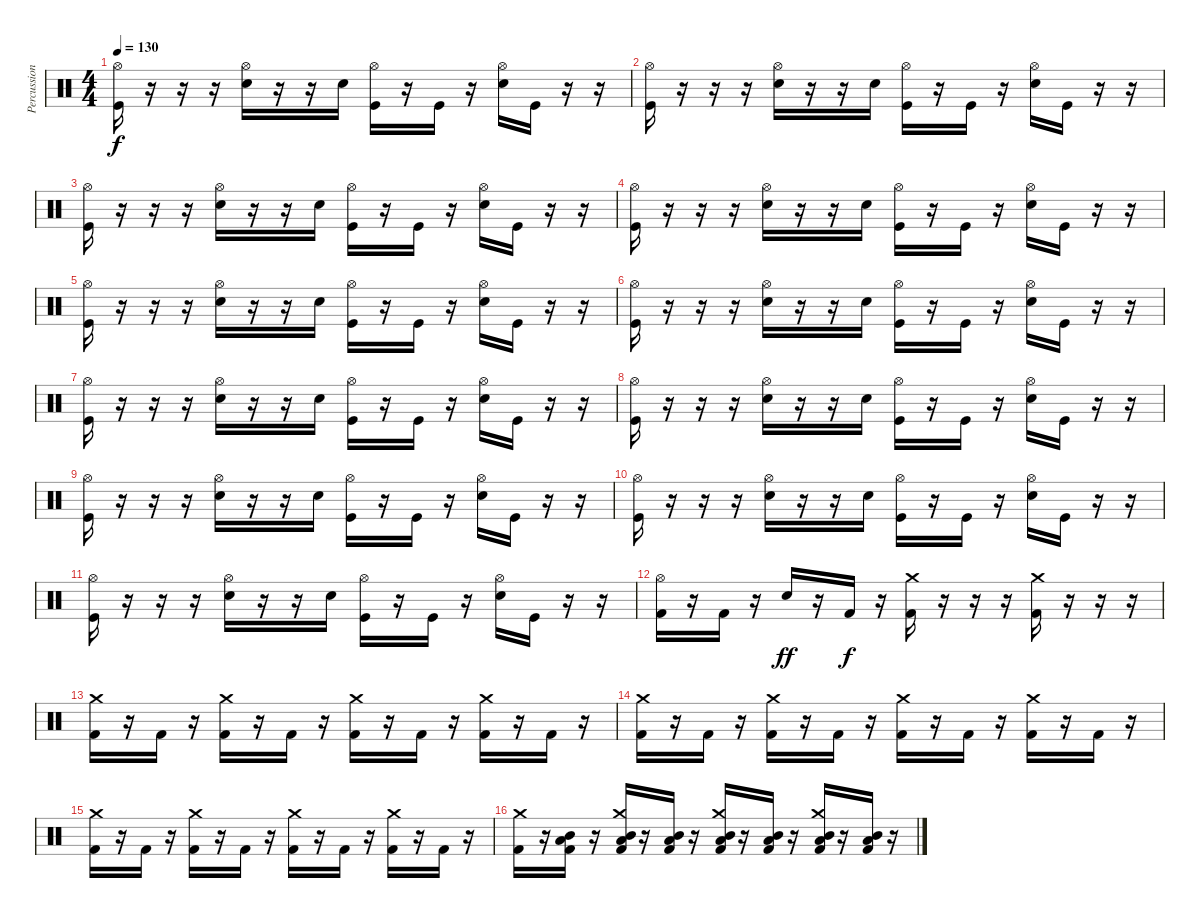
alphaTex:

\track ("Percussions" "Percussion") {instrument percussion}
\staff {score}
\articulation defaults
\ts (4 4)
\tempo 130
\clef neutral
\ks c
("Hi-Hat (open)" "Kick (hit)").16{dy f} r.16 r.16 r.16 ("Hi-Hat (open)" "Snare (hit) 2").16 r.16 r.16 "Snare (hit) 2".16 ("Hi-Hat (open)" "Kick (hit)").16 r.16 "Kick (hit)".16 r.16 ("Hi-Hat (open)" "Snare (hit) 2").16 "Kick (hit)".16 r.16 r.16 |
("Hi-Hat (open)" "Kick (hit)").16 r.16 r.16 r.16 ("Hi-Hat (open)" "Snare (hit) 2").16 r.16 r.16 "Snare (hit) 2".16 ("Hi-Hat (open)" "Kick (hit)").16 r.16 "Kick (hit)".16 r.16 ("Hi-Hat (open)" "Snare (hit) 2").16 "Kick (hit)".16 r.16 r.16 |
("Hi-Hat (open)" "Kick (hit)").16 r.16 r.16 r.16 ("Hi-Hat (open)" "Snare (hit) 2").16 r.16 r.16 "Snare (hit) 2".16 ("Hi-Hat (open)" "Kick (hit)").16 r.16 "Kick (hit)".16 r.16 ("Hi-Hat (open)" "Snare (hit) 2").16 "Kick (hit)".16 r.16 r.16 |
("Hi-Hat (open)" "Kick (hit)").16 r.16 r.16 r.16 ("Hi-Hat (open)" "Snare (hit) 2").16 r.16 r.16 "Snare (hit) 2".16 ("Hi-Hat (open)" "Kick (hit)").16 r.16 "Kick (hit)".16 r.16 ("Hi-Hat (open)" "Snare (hit) 2").16 "Kick (hit)".16 r.16 r.16 |
("Hi-Hat (open)" "Kick (hit)").16 r.16 r.16 r.16 ("Hi-Hat (open)" "Snare (hit) 2").16 r.16 r.16 "Snare (hit) 2".16 ("Hi-Hat (open)" "Kick (hit)").16 r.16 "Kick (hit)".16 r.16 ("Hi-Hat (open)" "Snare (hit) 2").16 "Kick (hit)".16 r.16 r.16 |
("Hi-Hat (open)" "Kick (hit)").16 r.16 r.16 r.16 ("Hi-Hat (open)" "Snare (hit) 2").16 r.16 r.16 "Snare (hit) 2".16 ("Hi-Hat (open)" "Kick (hit)").16 r.16 "Kick (hit)".16 r.16 ("Hi-Hat (open)" "Snare (hit) 2").16 "Kick (hit)".16 r.16 r.16 |
("Hi-Hat (open)" "Kick (hit)").16 r.16 r.16 r.16 ("Hi-Hat (open)" "Snare (hit) 2").16 r.16 r.16 "Snare (hit) 2".16 ("Hi-Hat (open)" "Kick (hit)").16 r.16 "Kick (hit)".16 r.16 ("Hi-Hat (open)" "Snare (hit) 2").16 "Kick (hit)".16 r.16 r.16 |
("Hi-Hat (open)" "Kick (hit)").16 r.16 r.16 r.16 ("Hi-Hat (open)" "Snare (hit) 2").16 r.16 r.16 "Snare (hit) 2".16 ("Hi-Hat (open)" "Kick (hit)").16 r.16 "Kick (hit)".16 r.16 ("Hi-Hat (open)" "Snare (hit) 2").16 "Kick (hit)".16 r.16 r.16 |
("Hi-Hat (open)" "Kick (hit)").16 r.16 r.16 r.16 ("Hi-Hat (open)" "Snare (hit) 2").16 r.16 r.16 "Snare (hit) 2".16 ("Hi-Hat (open)" "Kick (hit)").16 r.16 "Kick (hit)".16 r.16 ("Hi-Hat (open)" "Snare (hit) 2").16 "Kick (hit)".16 r.16 r.16 |
("Hi-Hat (open)" "Kick (hit)").16 r.16 r.16 r.16 ("Hi-Hat (open)" "Snare (hit) 2").16 r.16 r.16 "Snare (hit) 2".16 ("Hi-Hat (open)" "Kick (hit)").16 r.16 "Kick (hit)".16 r.16 ("Hi-Hat (open)" "Snare (hit) 2").16 "Kick (hit)".16 r.16 r.16 |
("Hi-Hat (open)" "Kick (hit)").16 r.16 r.16 r.16 ("Hi-Hat (open)" "Snare (hit) 2").16 r.16 r.16 "Snare (hit) 2".16 ("Hi-Hat (open)" "Kick (hit)").16 r.16 "Kick (hit)".16 r.16 ("Hi-Hat (open)" "Snare (hit) 2").16 "Kick (hit)".16 r.16 r.16 |
("Hi-Hat (open)" "Kick (hit) 2").16 r.16 "Kick (hit) 2".16 r.16 "Snare (hit) 2".16{dy ff} r.16 "Kick (hit) 2".16{dy f} r.16 ("Crash medium (hit)" "Kick (hit) 2").16 r.16 r.16 r.16 ("Crash medium (hit)" "Kick (hit) 2").16 r.16 r.16 r.16 |
("Crash medium (hit)" "Kick (hit) 2").16 r.16 "Kick (hit) 2".16 r.16 ("Crash medium (hit)" "Kick (hit) 2").16 r.16 "Kick (hit) 2".16 r.16 ("Crash medium (hit)" "Kick (hit) 2").16 r.16 "Kick (hit) 2".16 r.16 ("Crash medium (hit)" "Kick (hit) 2").16 r.16 "Kick (hit) 2".16 r.16 |
("Crash medium (hit)" "Kick (hit) 2").16 r.16 "Kick (hit) 2".16 r.16 ("Crash medium (hit)" "Kick (hit) 2").16 r.16 "Kick (hit) 2".16 r.16 ("Crash medium (hit)" "Kick (hit) 2").16 r.16 "Kick (hit) 2".16 r.16 ("Crash medium (hit)" "Kick (hit) 2").16 r.16 "Kick (hit) 2".16 r.16 |
("Crash medium (hit)" "Kick (hit) 2").16 r.16 "Kick (hit) 2".16 r.16 ("Crash medium (hit)" "Kick (hit) 2").16 r.16 "Kick (hit) 2".16 r.16 ("Crash medium (hit)" "Kick (hit) 2").16 r.16 "Kick (hit) 2".16 r.16 ("Crash medium (hit)" "Kick (hit) 2").16 r.16 "Kick (hit) 2".16 r.16 |
("Crash medium (hit)" "Kick (hit) 2").16 r.16 ("Low Tom (hit)" "Mid Tom (hit)" "Kick (hit) 2").16 r.16 ("Crash medium (hit)" "Low Tom (hit)" "Mid Tom (hit)" "Kick (hit) 2").16 r.16 ("Low Tom (hit)" "Mid Tom (hit)" "Kick (hit) 2").16 r.16 ("Crash medium (hit)" "Low Tom (hit)" "Mid Tom (hit)" "Kick (hit) 2").16 r.16 ("Low Tom (hit)" "Mid Tom (hit)" "Kick (hit) 2").16 r.16 ("Crash medium (hit)" "Low Tom (hit)" "Mid Tom (hit)" "Kick (hit) 2").16 r.16 ("Low Tom (hit)" "Mid Tom (hit)" "Kick (hit) 2").16 r.16
